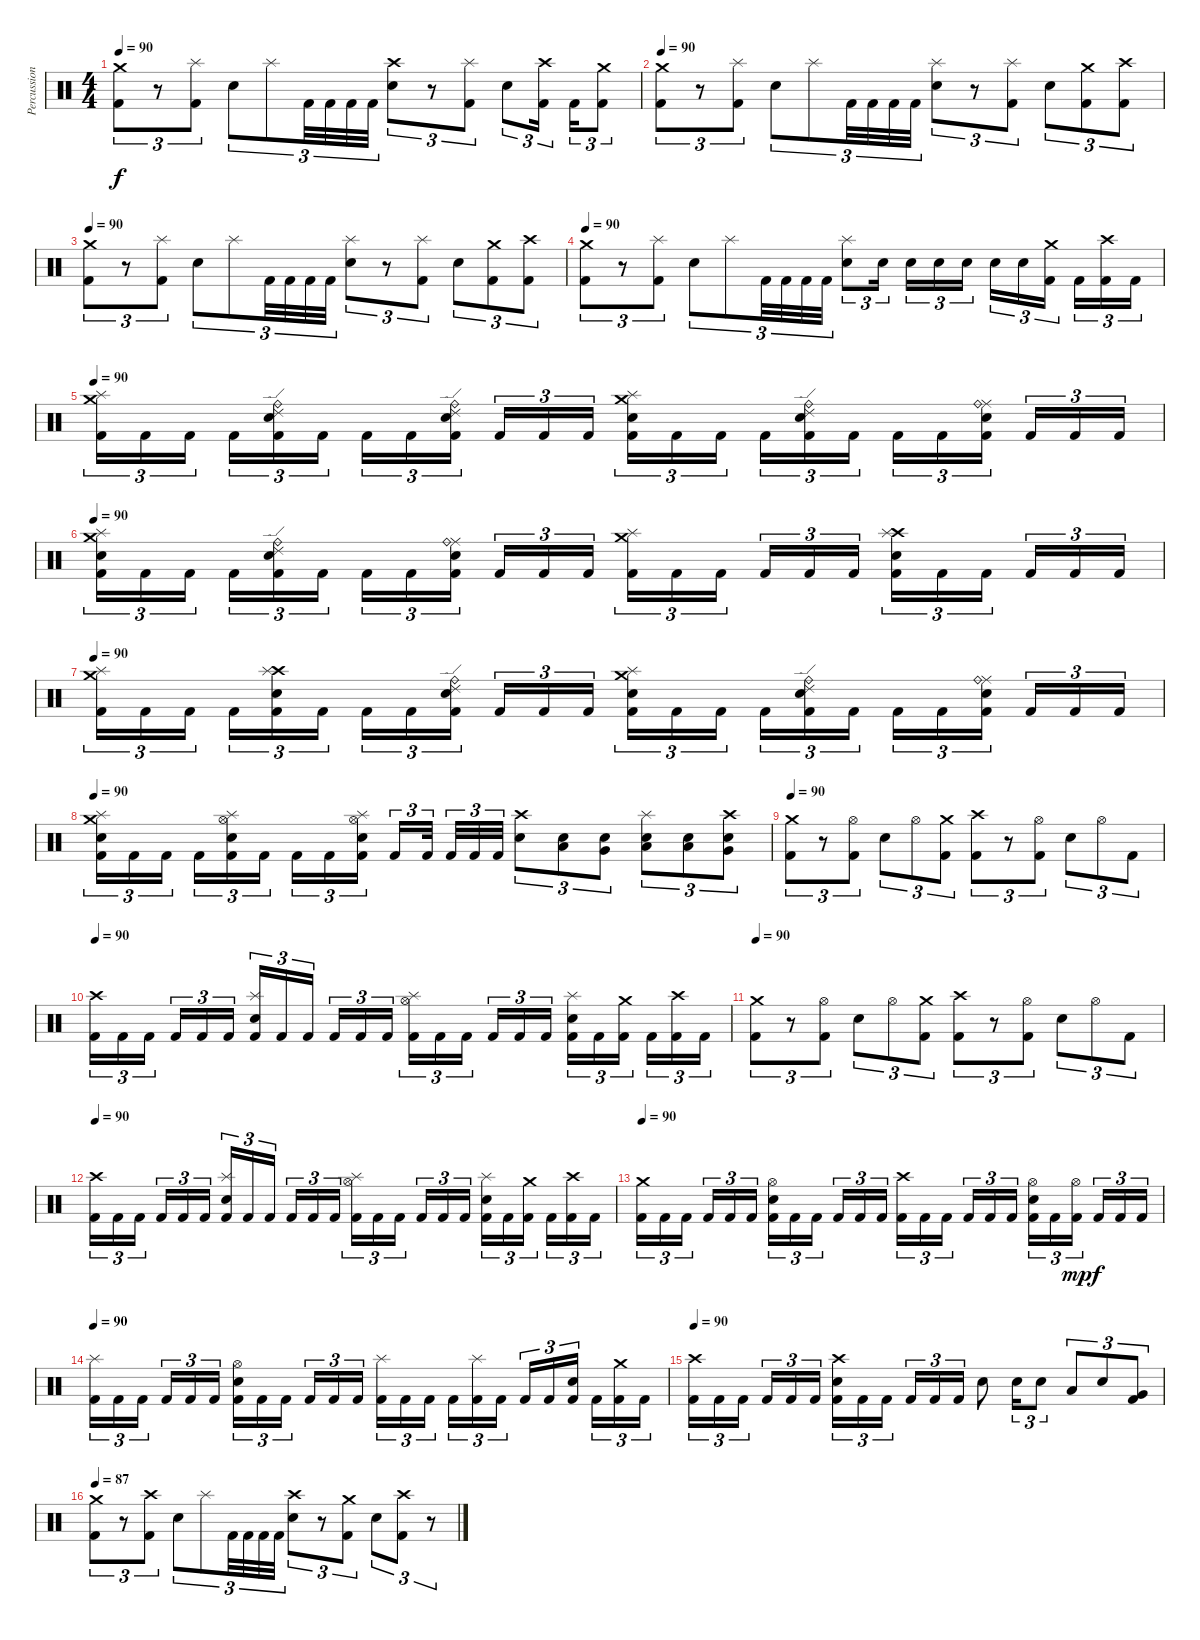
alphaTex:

\track ("Percussion" "Percussion") {instrument percussion}
\staff {score}
\articulation defaults
\ts (4 4)
\tempo 90
\clef neutral
\ks c
("Crash medium (hit)" "Kick (hit) 2").8{tu (3 2) dy f} r.8{tu (3 2)} ("Splash (hit)" "Kick (hit) 2").8{tu (3 2)} "Electric Snare (hit)".8{tu (3 2)} "Splash (hit)".8{tu (3 2)} "Kick (hit) 2".32{tu (3 2)} "Kick (hit) 2".32{tu (3 2)} "Kick (hit) 2".32{tu (3 2)} "Kick (hit) 2".32{tu (3 2)} ("Crash high (hit)" "Electric Snare (hit)").8{tu (3 2)} r.8{tu (3 2)} ("Splash (hit)" "Kick (hit) 2").8{tu (3 2)} "Electric Snare (hit)".8{tu (3 2)} ("Crash high (hit)" "Kick (hit) 2").16{tu (3 2)} "Kick (hit) 2".16{tu (3 2)} ("Crash medium (hit)" "Kick (hit) 2").8{tu (3 2)} |
\tempo 90
("Crash medium (hit)" "Kick (hit) 2").8{tu (3 2)} r.8{tu (3 2)} ("Splash (hit)" "Kick (hit) 2").8{tu (3 2)} "Electric Snare (hit)".8{tu (3 2)} "Splash (hit)".8{tu (3 2)} "Kick (hit) 2".32{tu (3 2)} "Kick (hit) 2".32{tu (3 2)} "Kick (hit) 2".32{tu (3 2)} "Kick (hit) 2".32{tu (3 2)} ("Splash (hit)" "Electric Snare (hit)").8{tu (3 2)} r.8{tu (3 2)} ("Splash (hit)" "Kick (hit) 2").8{tu (3 2)} "Electric Snare (hit)".8{tu (3 2)} ("Crash medium (hit)" "Kick (hit) 2").8{tu (3 2)} ("Crash high (hit)" "Kick (hit) 2").8{tu (3 2)} |
\tempo 90
("Crash medium (hit)" "Kick (hit) 2").8{tu (3 2)} r.8{tu (3 2)} ("Splash (hit)" "Kick (hit) 2").8{tu (3 2)} "Electric Snare (hit)".8{tu (3 2)} "Splash (hit)".8{tu (3 2)} "Kick (hit) 2".32{tu (3 2)} "Kick (hit) 2".32{tu (3 2)} "Kick (hit) 2".32{tu (3 2)} "Kick (hit) 2".32{tu (3 2)} ("Splash (hit)" "Electric Snare (hit)").8{tu (3 2)} r.8{tu (3 2)} ("Splash (hit)" "Kick (hit) 2").8{tu (3 2)} "Electric Snare (hit)".8{tu (3 2)} ("Crash medium (hit)" "Kick (hit) 2").8{tu (3 2)} ("Crash high (hit)" "Kick (hit) 2").8{tu (3 2)} |
\tempo 90
("Crash medium (hit)" "Kick (hit) 2").8{tu (3 2)} r.8{tu (3 2)} ("Splash (hit)" "Kick (hit) 2").8{tu (3 2)} "Electric Snare (hit)".8{tu (3 2)} "Splash (hit)".8{tu (3 2)} "Kick (hit) 2".32{tu (3 2)} "Kick (hit) 2".32{tu (3 2)} "Kick (hit) 2".32{tu (3 2)} "Kick (hit) 2".32{tu (3 2)} ("Splash (hit)" "Electric Snare (hit)").8{tu (3 2)} "Electric Snare (hit)".16{tu (3 2)} "Electric Snare (hit)".16{tu (3 2)} "Electric Snare (hit)".16{tu (3 2)} "Electric Snare (hit)".16{tu (3 2)} "Electric Snare (hit)".16{tu (3 2)} "Electric Snare (hit)".16{tu (3 2)} ("Crash medium (hit)" "Kick (hit) 2").16{tu (3 2)} "Kick (hit) 2".16{tu (3 2)} ("Crash high (hit)" "Kick (hit) 2").16{tu (3 2)} "Kick (hit) 2".16{tu (3 2)} |
\tempo 90
("Crash medium (hit)" "Splash (hit)" "Kick (hit) 2").16{tu (3 2)} "Kick (hit) 2".16{tu (3 2)} "Kick (hit) 2".16{tu (3 2)} "Kick (hit) 2".16{tu (3 2)} ("Ride (edge) 2" "Ride (bell)" "Electric Snare (hit)" "Kick (hit) 2").16{tu (3 2)} "Kick (hit) 2".16{tu (3 2)} "Kick (hit) 2".16{tu (3 2)} "Kick (hit) 2".16{tu (3 2)} ("Ride (edge) 2" "Ride (bell)" "Electric Snare (hit)" "Kick (hit) 2").16{tu (3 2)} "Kick (hit) 2".16{tu (3 2)} "Kick (hit) 2".16{tu (3 2)} "Kick (hit) 2".16{tu (3 2)} ("Crash medium (hit)" "Splash (hit)" "Electric Snare (hit)" "Kick (hit) 2").16{tu (3 2)} "Kick (hit) 2".16{tu (3 2)} "Kick (hit) 2".16{tu (3 2)} "Kick (hit) 2".16{tu (3 2)} ("Ride (edge) 2" "Ride (bell)" "Electric Snare (hit)" "Kick (hit) 2").16{tu (3 2)} "Kick (hit) 2".16{tu (3 2)} "Kick (hit) 2".16{tu (3 2)} "Kick (hit) 2".16{tu (3 2)} ("Ride (middle)" "Ride (bell)" "Electric Snare (hit)" "Kick (hit) 2").16{tu (3 2)} "Kick (hit) 2".16{tu (3 2)} "Kick (hit) 2".16{tu (3 2)} "Kick (hit) 2".16{tu (3 2)} |
\tempo 90
("Crash medium (hit)" "Splash (hit)" "Electric Snare (hit)" "Kick (hit) 2").16{tu (3 2)} "Kick (hit) 2".16{tu (3 2)} "Kick (hit) 2".16{tu (3 2)} "Kick (hit) 2".16{tu (3 2)} ("Ride (edge) 2" "Ride (bell)" "Electric Snare (hit)" "Kick (hit) 2").16{tu (3 2)} "Kick (hit) 2".16{tu (3 2)} "Kick (hit) 2".16{tu (3 2)} "Kick (hit) 2".16{tu (3 2)} ("Ride (middle)" "Ride (bell)" "Electric Snare (hit)" "Kick (hit) 2").16{tu (3 2)} "Kick (hit) 2".16{tu (3 2)} "Kick (hit) 2".16{tu (3 2)} "Kick (hit) 2".16{tu (3 2)} ("Crash medium (hit)" "Splash (hit)" "Kick (hit) 2").16{tu (3 2)} "Kick (hit) 2".16{tu (3 2)} "Kick (hit) 2".16{tu (3 2)} "Kick (hit) 2".16{tu (3 2)} "Kick (hit) 2".16{tu (3 2)} "Kick (hit) 2".16{tu (3 2)} ("Crash high (hit)" "Splash (hit)" "Electric Snare (hit)" "Kick (hit) 2").16{tu (3 2)} "Kick (hit) 2".16{tu (3 2)} "Kick (hit) 2".16{tu (3 2)} "Kick (hit) 2".16{tu (3 2)} "Kick (hit) 2".16{tu (3 2)} "Kick (hit) 2".16{tu (3 2)} |
\tempo 90
("Crash medium (hit)" "Splash (hit)" "Kick (hit) 2").16{tu (3 2)} "Kick (hit) 2".16{tu (3 2)} "Kick (hit) 2".16{tu (3 2)} "Kick (hit) 2".16{tu (3 2)} ("Crash high (hit)" "Splash (hit)" "Electric Snare (hit)" "Kick (hit) 2").16{tu (3 2)} "Kick (hit) 2".16{tu (3 2)} "Kick (hit) 2".16{tu (3 2)} "Kick (hit) 2".16{tu (3 2)} ("Ride (edge) 2" "Ride (bell)" "Electric Snare (hit)" "Kick (hit) 2").16{tu (3 2)} "Kick (hit) 2".16{tu (3 2)} "Kick (hit) 2".16{tu (3 2)} "Kick (hit) 2".16{tu (3 2)} ("Crash medium (hit)" "Splash (hit)" "Electric Snare (hit)" "Kick (hit) 2").16{tu (3 2)} "Kick (hit) 2".16{tu (3 2)} "Kick (hit) 2".16{tu (3 2)} "Kick (hit) 2".16{tu (3 2)} ("Ride (edge) 2" "Ride (bell)" "Electric Snare (hit)" "Kick (hit) 2").16{tu (3 2)} "Kick (hit) 2".16{tu (3 2)} "Kick (hit) 2".16{tu (3 2)} "Kick (hit) 2".16{tu (3 2)} ("Ride (middle)" "Ride (bell)" "Electric Snare (hit)" "Kick (hit) 2").16{tu (3 2)} "Kick (hit) 2".16{tu (3 2)} "Kick (hit) 2".16{tu (3 2)} "Kick (hit) 2".16{tu (3 2)} |
\tempo 90
("Crash medium (hit)" "Splash (hit)" "Electric Snare (hit)" "Kick (hit) 2").16{tu (3 2)} "Kick (hit) 2".16{tu (3 2)} "Kick (hit) 2".16{tu (3 2)} "Kick (hit) 2".16{tu (3 2)} ("Splash (hit)" "Hi-Hat (open)" "Electric Snare (hit)" "Kick (hit) 2").16{tu (3 2)} "Kick (hit) 2".16{tu (3 2)} "Kick (hit) 2".16{tu (3 2)} "Kick (hit) 2".16{tu (3 2)} ("Splash (hit)" "Hi-Hat (open)" "Electric Snare (hit)" "Kick (hit) 2").16{tu (3 2)} "Kick (hit) 2".16{tu (3 2)} "Kick (hit) 2".32{tu (3 2)} "Kick (hit) 2".32{tu (3 2)} "Kick (hit) 2".32{tu (3 2)} "Kick (hit) 2".32{tu (3 2)} ("Crash high (hit)" "Electric Snare (hit)").8{tu (3 2)} ("Low Tom (hit)" "Electric Snare (hit)").8{tu (3 2)} ("Very Low Tom (hit)" "Electric Snare (hit)").8{tu (3 2)} ("Splash (hit)" "Low Floor Tom (hit)" "Electric Snare (hit)").8{tu (3 2)} ("Low Tom (hit)" "Electric Snare (hit)").8{tu (3 2)} ("Crash high (hit)" "Very Low Tom (hit)" "Electric Snare (hit)").8{tu (3 2)} |
\tempo 90
("Crash medium (hit)" "Kick (hit) 2").8{tu (3 2)} r.8{tu (3 2)} ("Hi-Hat (open)" "Kick (hit) 2").8{tu (3 2)} "Electric Snare (hit)".8{tu (3 2)} "Hi-Hat (open)".8{tu (3 2)} ("Crash medium (hit)" "Kick (hit) 2").8{tu (3 2)} ("Crash high (hit)" "Kick (hit) 2").8{tu (3 2)} r.8{tu (3 2)} ("Hi-Hat (open)" "Kick (hit) 2").8{tu (3 2)} "Electric Snare (hit)".8{tu (3 2)} "Hi-Hat (open)".8{tu (3 2)} "Kick (hit) 2".8{tu (3 2)} |
\tempo 90
("Crash high (hit)" "Kick (hit) 2").16{tu (3 2)} "Kick (hit) 2".16{tu (3 2)} "Kick (hit) 2".16{tu (3 2)} "Kick (hit) 2".16{tu (3 2)} "Kick (hit) 2".16{tu (3 2)} "Kick (hit) 2".16{tu (3 2)} ("Splash (hit)" "Electric Snare (hit)" "Kick (hit) 2").16{tu (3 2)} "Kick (hit) 2".16{tu (3 2)} "Kick (hit) 2".16{tu (3 2)} "Kick (hit) 2".16{tu (3 2)} "Kick (hit) 2".16{tu (3 2)} "Kick (hit) 2".16{tu (3 2)} ("Hi-Hat (open)" "Splash (hit)" "Kick (hit) 2").16{tu (3 2)} "Kick (hit) 2".16{tu (3 2)} "Kick (hit) 2".16{tu (3 2)} "Kick (hit) 2".16{tu (3 2)} "Kick (hit) 2".16{tu (3 2)} "Kick (hit) 2".16{tu (3 2)} ("Splash (hit)" "Electric Snare (hit)" "Kick (hit) 2").16{tu (3 2)} "Kick (hit) 2".16{tu (3 2)} ("Crash medium (hit)" "Kick (hit) 2").16{tu (3 2)} "Kick (hit) 2".16{tu (3 2)} ("Crash high (hit)" "Kick (hit) 2").16{tu (3 2)} "Kick (hit) 2".16{tu (3 2)} |
\tempo 90
("Crash medium (hit)" "Kick (hit) 2").8{tu (3 2)} r.8{tu (3 2)} ("Hi-Hat (open)" "Kick (hit) 2").8{tu (3 2)} "Electric Snare (hit)".8{tu (3 2)} "Hi-Hat (open)".8{tu (3 2)} ("Crash medium (hit)" "Kick (hit) 2").8{tu (3 2)} ("Crash high (hit)" "Kick (hit) 2").8{tu (3 2)} r.8{tu (3 2)} ("Hi-Hat (open)" "Kick (hit) 2").8{tu (3 2)} "Electric Snare (hit)".8{tu (3 2)} "Hi-Hat (open)".8{tu (3 2)} "Kick (hit) 2".8{tu (3 2)} |
\tempo 90
("Crash high (hit)" "Kick (hit) 2").16{tu (3 2)} "Kick (hit) 2".16{tu (3 2)} "Kick (hit) 2".16{tu (3 2)} "Kick (hit) 2".16{tu (3 2)} "Kick (hit) 2".16{tu (3 2)} "Kick (hit) 2".16{tu (3 2)} ("Splash (hit)" "Electric Snare (hit)" "Kick (hit) 2").16{tu (3 2)} "Kick (hit) 2".16{tu (3 2)} "Kick (hit) 2".16{tu (3 2)} "Kick (hit) 2".16{tu (3 2)} "Kick (hit) 2".16{tu (3 2)} "Kick (hit) 2".16{tu (3 2)} ("Hi-Hat (open)" "Splash (hit)" "Kick (hit) 2").16{tu (3 2)} "Kick (hit) 2".16{tu (3 2)} "Kick (hit) 2".16{tu (3 2)} "Kick (hit) 2".16{tu (3 2)} "Kick (hit) 2".16{tu (3 2)} "Kick (hit) 2".16{tu (3 2)} ("Splash (hit)" "Electric Snare (hit)" "Kick (hit) 2").16{tu (3 2)} "Kick (hit) 2".16{tu (3 2)} ("Crash medium (hit)" "Kick (hit) 2").16{tu (3 2)} "Kick (hit) 2".16{tu (3 2)} ("Crash high (hit)" "Kick (hit) 2").16{tu (3 2)} "Kick (hit) 2".16{tu (3 2)} |
\tempo 90
("Crash medium (hit)" "Kick (hit) 2").16{tu (3 2)} "Kick (hit) 2".16{tu (3 2)} "Kick (hit) 2".16{tu (3 2)} "Kick (hit) 2".16{tu (3 2)} "Kick (hit) 2".16{tu (3 2)} "Kick (hit) 2".16{tu (3 2)} ("Hi-Hat (open)" "Electric Snare (hit)" "Kick (hit) 2").16{tu (3 2)} "Kick (hit) 2".16{tu (3 2)} "Kick (hit) 2".16{tu (3 2)} "Kick (hit) 2".16{tu (3 2)} "Kick (hit) 2".16{tu (3 2)} "Kick (hit) 2".16{tu (3 2)} ("Crash high (hit)" "Kick (hit) 2").16{tu (3 2)} "Kick (hit) 2".16{tu (3 2)} "Kick (hit) 2".16{tu (3 2)} "Kick (hit) 2".16{tu (3 2)} "Kick (hit) 2".16{tu (3 2)} "Kick (hit) 2".16{tu (3 2)} ("Hi-Hat (open)" "Electric Snare (hit)" "Kick (hit) 2").16{tu (3 2)} "Kick (hit) 2".16{tu (3 2)} ("Hi-Hat (open)" "Kick (hit) 2").16{tu (3 2) dy mp} "Kick (hit) 2".16{tu (3 2) dy f} "Kick (hit) 2".16{tu (3 2)} "Kick (hit) 2".16{tu (3 2)} |
\tempo 90
("Splash (hit)" "Kick (hit) 2").16{tu (3 2)} "Kick (hit) 2".16{tu (3 2)} "Kick (hit) 2".16{tu (3 2)} "Kick (hit) 2".16{tu (3 2)} "Kick (hit) 2".16{tu (3 2)} "Kick (hit) 2".16{tu (3 2)} ("Hi-Hat (open)" "Electric Snare (hit)" "Kick (hit) 2").16{tu (3 2)} "Kick (hit) 2".16{tu (3 2)} "Kick (hit) 2".16{tu (3 2)} "Kick (hit) 2".16{tu (3 2)} "Kick (hit) 2".16{tu (3 2)} "Kick (hit) 2".16{tu (3 2)} ("Splash (hit)" "Kick (hit) 2").16{tu (3 2)} "Kick (hit) 2".16{tu (3 2)} "Kick (hit) 2".16{tu (3 2)} "Kick (hit) 2".16{tu (3 2)} ("Splash (hit)" "Kick (hit) 2").16{tu (3 2)} "Kick (hit) 2".16{tu (3 2)} "Kick (hit) 2".16{tu (3 2)} "Kick (hit) 2".16{tu (3 2)} ("Electric Snare (hit)" "Kick (hit) 2").16{tu (3 2)} "Kick (hit) 2".16{tu (3 2)} ("Crash medium (hit)" "Kick (hit) 2").16{tu (3 2)} "Kick (hit) 2".16{tu (3 2)} |
\tempo 90
("Crash high (hit)" "Kick (hit) 2").16{tu (3 2)} "Kick (hit) 2".16{tu (3 2)} "Kick (hit) 2".16{tu (3 2)} "Kick (hit) 2".16{tu (3 2)} "Kick (hit) 2".16{tu (3 2)} "Kick (hit) 2".16{tu (3 2)} ("Crash high (hit)" "Electric Snare (hit)" "Kick (hit) 2").16{tu (3 2)} "Kick (hit) 2".16{tu (3 2)} "Kick (hit) 2".16{tu (3 2)} "Kick (hit) 2".16{tu (3 2)} "Kick (hit) 2".16{tu (3 2)} "Kick (hit) 2".16{tu (3 2)} "Electric Snare (hit)".8 "Electric Snare (hit)".16{tu (3 2)} "Electric Snare (hit)".8{tu (3 2)} "Low Tom (hit)".8{tu (3 2)} "Electric Snare (hit)".8{tu (3 2)} ("Very Low Tom (hit)" "Kick (hit) 2").8{tu (3 2)} |
\tempo 87
("Crash medium (hit)" "Kick (hit) 2").8{tu (3 2)} r.8{tu (3 2)} ("Crash high (hit)" "Kick (hit) 2").8{tu (3 2)} "Electric Snare (hit)".8{tu (3 2)} "Splash (hit)".8{tu (3 2)} "Kick (hit) 2".32{tu (3 2)} "Kick (hit) 2".32{tu (3 2)} "Kick (hit) 2".32{tu (3 2)} "Kick (hit) 2".32{tu (3 2)} ("Crash high (hit)" "Electric Snare (hit)").8{tu (3 2)} r.8{tu (3 2)} ("Crash medium (hit)" "Kick (hit) 2").8{tu (3 2)} "Electric Snare (hit)".8{tu (3 2)} ("Crash high (hit)" "Kick (hit) 2").8{tu (3 2)} r.8{tu (3 2)}
